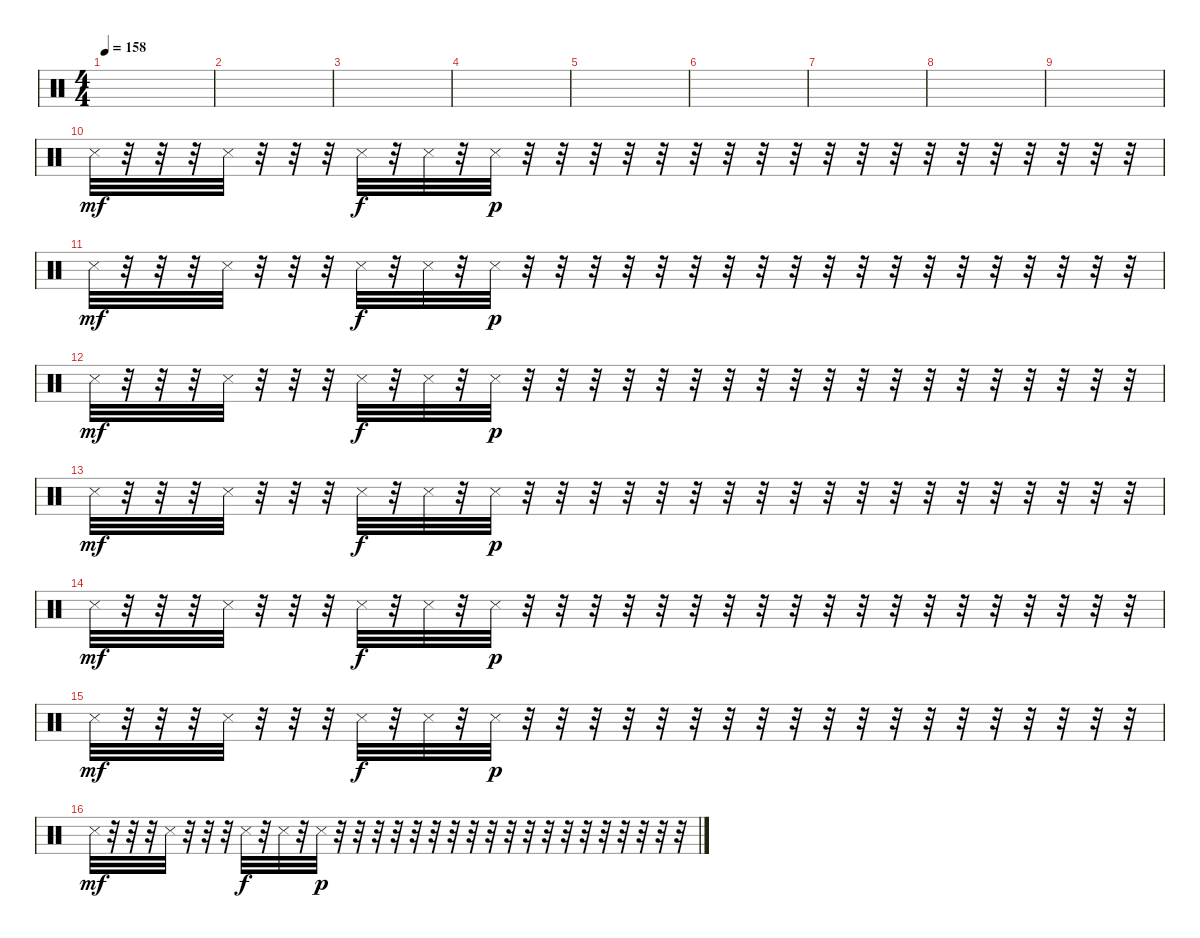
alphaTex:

\track ("   " "   ") {instrument percussion}
\staff
\articulation defaults
\ts (4 4)
\tempo 158
\clef neutral
\ks c
|
|
|
|
|
|
|
|
|
"Snare (side stick) 3".32{dy mf} r.32 r.32 r.32 "Snare (side stick) 3".32 r.32 r.32 r.32 "Snare (side stick) 3".32{dy f} r.32 "Snare (side stick) 3".32 r.32 "Snare (side stick) 3".32{dy p} r.32 r.32 r.32 r.32 r.32 r.32 r.32 r.32 r.32 r.32 r.32 r.32 r.32 r.32 r.32 r.32 r.32 r.32 r.32 |
"Snare (side stick) 3".32{dy mf} r.32 r.32 r.32 "Snare (side stick) 3".32 r.32 r.32 r.32 "Snare (side stick) 3".32{dy f} r.32 "Snare (side stick) 3".32 r.32 "Snare (side stick) 3".32{dy p} r.32 r.32 r.32 r.32 r.32 r.32 r.32 r.32 r.32 r.32 r.32 r.32 r.32 r.32 r.32 r.32 r.32 r.32 r.32 |
"Snare (side stick) 3".32{dy mf} r.32 r.32 r.32 "Snare (side stick) 3".32 r.32 r.32 r.32 "Snare (side stick) 3".32{dy f} r.32 "Snare (side stick) 3".32 r.32 "Snare (side stick) 3".32{dy p} r.32 r.32 r.32 r.32 r.32 r.32 r.32 r.32 r.32 r.32 r.32 r.32 r.32 r.32 r.32 r.32 r.32 r.32 r.32 |
"Snare (side stick) 3".32{dy mf} r.32 r.32 r.32 "Snare (side stick) 3".32 r.32 r.32 r.32 "Snare (side stick) 3".32{dy f} r.32 "Snare (side stick) 3".32 r.32 "Snare (side stick) 3".32{dy p} r.32 r.32 r.32 r.32 r.32 r.32 r.32 r.32 r.32 r.32 r.32 r.32 r.32 r.32 r.32 r.32 r.32 r.32 r.32 |
"Snare (side stick) 3".32{dy mf} r.32 r.32 r.32 "Snare (side stick) 3".32 r.32 r.32 r.32 "Snare (side stick) 3".32{dy f} r.32 "Snare (side stick) 3".32 r.32 "Snare (side stick) 3".32{dy p} r.32 r.32 r.32 r.32 r.32 r.32 r.32 r.32 r.32 r.32 r.32 r.32 r.32 r.32 r.32 r.32 r.32 r.32 r.32 |
"Snare (side stick) 3".32{dy mf} r.32 r.32 r.32 "Snare (side stick) 3".32 r.32 r.32 r.32 "Snare (side stick) 3".32{dy f} r.32 "Snare (side stick) 3".32 r.32 "Snare (side stick) 3".32{dy p} r.32 r.32 r.32 r.32 r.32 r.32 r.32 r.32 r.32 r.32 r.32 r.32 r.32 r.32 r.32 r.32 r.32 r.32 r.32 |
"Snare (side stick) 3".32{dy mf} r.32 r.32 r.32 "Snare (side stick) 3".32 r.32 r.32 r.32 "Snare (side stick) 3".32{dy f} r.32 "Snare (side stick) 3".32 r.32 "Snare (side stick) 3".32{dy p} r.32 r.32 r.32 r.32 r.32 r.32 r.32 r.32 r.32 r.32 r.32 r.32 r.32 r.32 r.32 r.32 r.32 r.32 r.32
